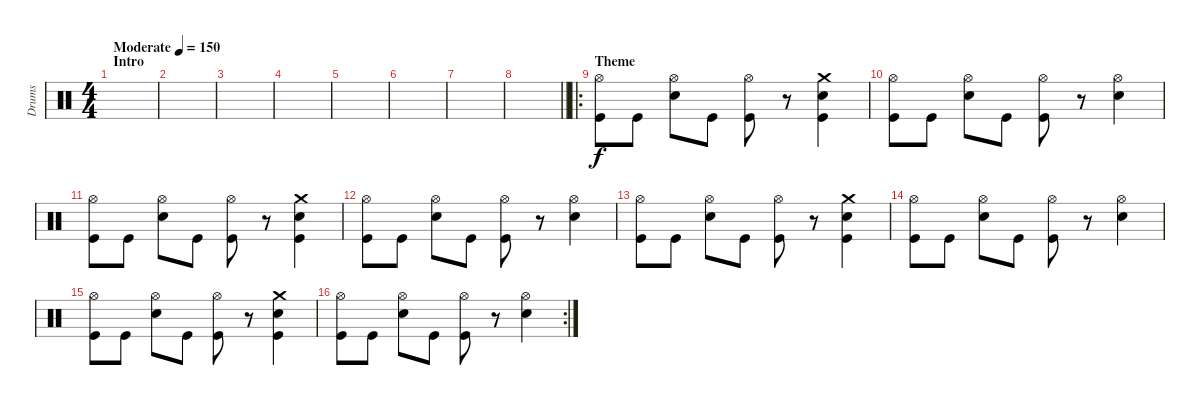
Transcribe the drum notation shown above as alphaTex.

\track ("Drums" "Drums") {instrument percussion}
\staff {score}
\articulation defaults
\ts (4 4)
\section ("" "Intro")
\tempo (150 "Moderate")
\clef neutral
\ks c
|
|
|
|
|
|
|
\barLineRight lightlight
|
\ro
\section ("" "Theme")
("Hi-Hat (open)" "Kick (hit)").8 "Kick (hit)".8 ("Hi-Hat (open)" "Snare (hit) 2").8 "Kick (hit)".8 ("Hi-Hat (open)" "Kick (hit)").8 r.8 ("Crash medium (hit)" "Snare (hit) 2" "Kick (hit)").4 |
("Hi-Hat (open)" "Kick (hit)").8 "Kick (hit)".8 ("Hi-Hat (open)" "Snare (hit) 2").8 "Kick (hit)".8 ("Hi-Hat (open)" "Kick (hit)").8 r.8 ("Hi-Hat (open)" "Snare (hit) 2").4 |
("Hi-Hat (open)" "Kick (hit)").8 "Kick (hit)".8 ("Hi-Hat (open)" "Snare (hit) 2").8 "Kick (hit)".8 ("Hi-Hat (open)" "Kick (hit)").8 r.8 ("Crash medium (hit)" "Snare (hit) 2" "Kick (hit)").4 |
("Hi-Hat (open)" "Kick (hit)").8 "Kick (hit)".8 ("Hi-Hat (open)" "Snare (hit) 2").8 "Kick (hit)".8 ("Hi-Hat (open)" "Kick (hit)").8 r.8 ("Hi-Hat (open)" "Snare (hit) 2").4 |
("Hi-Hat (open)" "Kick (hit)").8 "Kick (hit)".8 ("Hi-Hat (open)" "Snare (hit) 2").8 "Kick (hit)".8 ("Hi-Hat (open)" "Kick (hit)").8 r.8 ("Crash medium (hit)" "Snare (hit) 2" "Kick (hit)").4 |
("Hi-Hat (open)" "Kick (hit)").8 "Kick (hit)".8 ("Hi-Hat (open)" "Snare (hit) 2").8 "Kick (hit)".8 ("Hi-Hat (open)" "Kick (hit)").8 r.8 ("Hi-Hat (open)" "Snare (hit) 2").4 |
("Hi-Hat (open)" "Kick (hit)").8 "Kick (hit)".8 ("Hi-Hat (open)" "Snare (hit) 2").8 "Kick (hit)".8 ("Hi-Hat (open)" "Kick (hit)").8 r.8 ("Crash medium (hit)" "Snare (hit) 2" "Kick (hit)").4 |
\rc 2
("Hi-Hat (open)" "Kick (hit)").8 "Kick (hit)".8 ("Hi-Hat (open)" "Snare (hit) 2").8 "Kick (hit)".8 ("Hi-Hat (open)" "Kick (hit)").8 r.8 ("Hi-Hat (open)" "Snare (hit) 2").4
